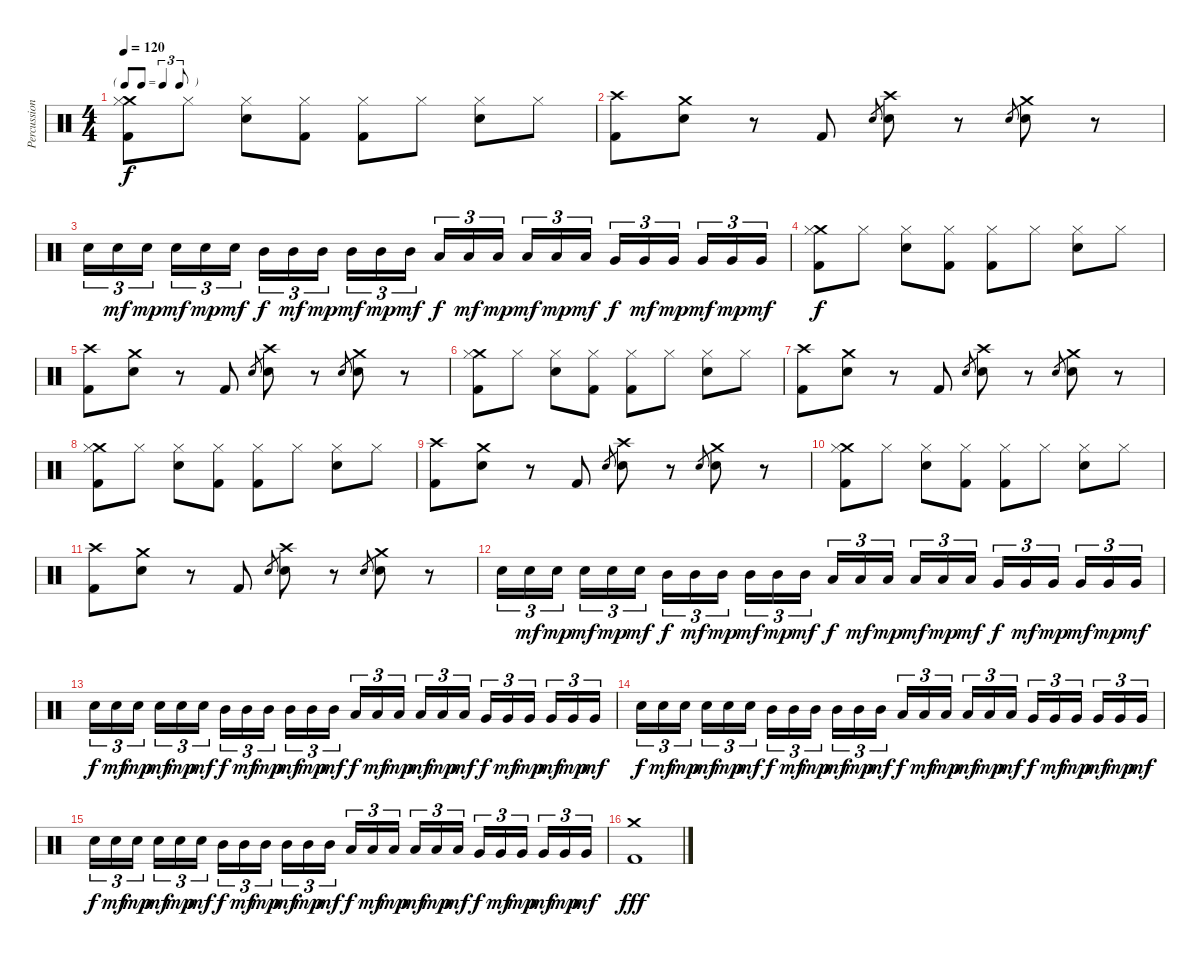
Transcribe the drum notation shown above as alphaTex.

\track ("Percussion" "Percussion") {instrument percussion}
\staff {score}
\articulation defaults
\ts (4 4)
\tf triplet8th
\tempo 120
\clef neutral
\ks c
("Crash medium (hit)" "Hi-Hat (closed)" "Kick (hit) 2").8{dy f} "Hi-Hat (closed)".8 ("Hi-Hat (closed)" "Electric Snare (hit)").8 ("Hi-Hat (closed)" "Kick (hit) 2").8 ("Hi-Hat (closed)" "Kick (hit) 2").8 "Hi-Hat (closed)".8 ("Hi-Hat (closed)" "Electric Snare (hit)").8 "Hi-Hat (closed)".8 |
("Crash high (hit)" "Kick (hit) 2").8 ("Crash medium (hit)" "Electric Snare (hit)").8 r.8 "Kick (hit) 2".8 "Electric Snare (hit)".8{gr} ("Crash high (hit)" "Electric Snare (hit)").8 r.8 "Electric Snare (hit)".8{gr} ("Crash medium (hit)" "Electric Snare (hit)").8 r.8 |
"Electric Snare (hit)".16{tu (3 2)} "Electric Snare (hit)".16{tu (3 2) dy mf} "Electric Snare (hit)".16{tu (3 2) dy mp} "Electric Snare (hit)".16{tu (3 2) dy mf} "Electric Snare (hit)".16{tu (3 2) dy mp} "Electric Snare (hit)".16{tu (3 2) dy mf} "Mid Tom (hit)".16{tu (3 2) dy f} "Mid Tom (hit)".16{tu (3 2) dy mf} "Mid Tom (hit)".16{tu (3 2) dy mp} "Mid Tom (hit)".16{tu (3 2) dy mf} "Mid Tom (hit)".16{tu (3 2) dy mp} "Mid Tom (hit)".16{tu (3 2) dy mf} "Low Tom (hit)".16{tu (3 2) dy f} "Low Tom (hit)".16{tu (3 2) dy mf} "Low Tom (hit)".16{tu (3 2) dy mp} "Low Tom (hit)".16{tu (3 2) dy mf} "Low Tom (hit)".16{tu (3 2) dy mp} "Low Tom (hit)".16{tu (3 2) dy mf} "Very Low Tom (hit)".16{tu (3 2) dy f} "Very Low Tom (hit)".16{tu (3 2) dy mf} "Very Low Tom (hit)".16{tu (3 2) dy mp} "Very Low Tom (hit)".16{tu (3 2) dy mf} "Very Low Tom (hit)".16{tu (3 2) dy mp} "Very Low Tom (hit)".16{tu (3 2) dy mf} |
("Crash medium (hit)" "Hi-Hat (closed)" "Kick (hit) 2").8{dy f} "Hi-Hat (closed)".8 ("Hi-Hat (closed)" "Electric Snare (hit)").8 ("Hi-Hat (closed)" "Kick (hit) 2").8 ("Hi-Hat (closed)" "Kick (hit) 2").8 "Hi-Hat (closed)".8 ("Hi-Hat (closed)" "Electric Snare (hit)").8 "Hi-Hat (closed)".8 |
("Crash high (hit)" "Kick (hit) 2").8 ("Crash medium (hit)" "Electric Snare (hit)").8 r.8 "Kick (hit) 2".8 "Electric Snare (hit)".8{gr} ("Crash high (hit)" "Electric Snare (hit)").8 r.8 "Electric Snare (hit)".8{gr} ("Crash medium (hit)" "Electric Snare (hit)").8 r.8 |
("Crash medium (hit)" "Hi-Hat (closed)" "Kick (hit) 2").8 "Hi-Hat (closed)".8 ("Hi-Hat (closed)" "Electric Snare (hit)").8 ("Hi-Hat (closed)" "Kick (hit) 2").8 ("Hi-Hat (closed)" "Kick (hit) 2").8 "Hi-Hat (closed)".8 ("Hi-Hat (closed)" "Electric Snare (hit)").8 "Hi-Hat (closed)".8 |
("Crash high (hit)" "Kick (hit) 2").8 ("Crash medium (hit)" "Electric Snare (hit)").8 r.8 "Kick (hit) 2".8 "Electric Snare (hit)".8{gr} ("Crash high (hit)" "Electric Snare (hit)").8 r.8 "Electric Snare (hit)".8{gr} ("Crash medium (hit)" "Electric Snare (hit)").8 r.8 |
("Crash medium (hit)" "Hi-Hat (closed)" "Kick (hit) 2").8 "Hi-Hat (closed)".8 ("Hi-Hat (closed)" "Electric Snare (hit)").8 ("Hi-Hat (closed)" "Kick (hit) 2").8 ("Hi-Hat (closed)" "Kick (hit) 2").8 "Hi-Hat (closed)".8 ("Hi-Hat (closed)" "Electric Snare (hit)").8 "Hi-Hat (closed)".8 |
("Crash high (hit)" "Kick (hit) 2").8 ("Crash medium (hit)" "Electric Snare (hit)").8 r.8 "Kick (hit) 2".8 "Electric Snare (hit)".8{gr} ("Crash high (hit)" "Electric Snare (hit)").8 r.8 "Electric Snare (hit)".8{gr} ("Crash medium (hit)" "Electric Snare (hit)").8 r.8 |
("Crash medium (hit)" "Hi-Hat (closed)" "Kick (hit) 2").8 "Hi-Hat (closed)".8 ("Hi-Hat (closed)" "Electric Snare (hit)").8 ("Hi-Hat (closed)" "Kick (hit) 2").8 ("Hi-Hat (closed)" "Kick (hit) 2").8 "Hi-Hat (closed)".8 ("Hi-Hat (closed)" "Electric Snare (hit)").8 "Hi-Hat (closed)".8 |
("Crash high (hit)" "Kick (hit) 2").8 ("Crash medium (hit)" "Electric Snare (hit)").8 r.8 "Kick (hit) 2".8 "Electric Snare (hit)".8{gr} ("Crash high (hit)" "Electric Snare (hit)").8 r.8 "Electric Snare (hit)".8{gr} ("Crash medium (hit)" "Electric Snare (hit)").8 r.8 |
"Electric Snare (hit)".16{tu (3 2)} "Electric Snare (hit)".16{tu (3 2) dy mf} "Electric Snare (hit)".16{tu (3 2) dy mp} "Electric Snare (hit)".16{tu (3 2) dy mf} "Electric Snare (hit)".16{tu (3 2) dy mp} "Electric Snare (hit)".16{tu (3 2) dy mf} "Mid Tom (hit)".16{tu (3 2) dy f} "Mid Tom (hit)".16{tu (3 2) dy mf} "Mid Tom (hit)".16{tu (3 2) dy mp} "Mid Tom (hit)".16{tu (3 2) dy mf} "Mid Tom (hit)".16{tu (3 2) dy mp} "Mid Tom (hit)".16{tu (3 2) dy mf} "Low Tom (hit)".16{tu (3 2) dy f} "Low Tom (hit)".16{tu (3 2) dy mf} "Low Tom (hit)".16{tu (3 2) dy mp} "Low Tom (hit)".16{tu (3 2) dy mf} "Low Tom (hit)".16{tu (3 2) dy mp} "Low Tom (hit)".16{tu (3 2) dy mf} "Very Low Tom (hit)".16{tu (3 2) dy f} "Very Low Tom (hit)".16{tu (3 2) dy mf} "Very Low Tom (hit)".16{tu (3 2) dy mp} "Very Low Tom (hit)".16{tu (3 2) dy mf} "Very Low Tom (hit)".16{tu (3 2) dy mp} "Very Low Tom (hit)".16{tu (3 2) dy mf} |
"Electric Snare (hit)".16{tu (3 2) dy f} "Electric Snare (hit)".16{tu (3 2) dy mf} "Electric Snare (hit)".16{tu (3 2) dy mp} "Electric Snare (hit)".16{tu (3 2) dy mf} "Electric Snare (hit)".16{tu (3 2) dy mp} "Electric Snare (hit)".16{tu (3 2) dy mf} "Mid Tom (hit)".16{tu (3 2) dy f} "Mid Tom (hit)".16{tu (3 2) dy mf} "Mid Tom (hit)".16{tu (3 2) dy mp} "Mid Tom (hit)".16{tu (3 2) dy mf} "Mid Tom (hit)".16{tu (3 2) dy mp} "Mid Tom (hit)".16{tu (3 2) dy mf} "Low Tom (hit)".16{tu (3 2) dy f} "Low Tom (hit)".16{tu (3 2) dy mf} "Low Tom (hit)".16{tu (3 2) dy mp} "Low Tom (hit)".16{tu (3 2) dy mf} "Low Tom (hit)".16{tu (3 2) dy mp} "Low Tom (hit)".16{tu (3 2) dy mf} "Very Low Tom (hit)".16{tu (3 2) dy f} "Very Low Tom (hit)".16{tu (3 2) dy mf} "Very Low Tom (hit)".16{tu (3 2) dy mp} "Very Low Tom (hit)".16{tu (3 2) dy mf} "Very Low Tom (hit)".16{tu (3 2) dy mp} "Very Low Tom (hit)".16{tu (3 2) dy mf} |
"Electric Snare (hit)".16{tu (3 2) dy f} "Electric Snare (hit)".16{tu (3 2) dy mf} "Electric Snare (hit)".16{tu (3 2) dy mp} "Electric Snare (hit)".16{tu (3 2) dy mf} "Electric Snare (hit)".16{tu (3 2) dy mp} "Electric Snare (hit)".16{tu (3 2) dy mf} "Mid Tom (hit)".16{tu (3 2) dy f} "Mid Tom (hit)".16{tu (3 2) dy mf} "Mid Tom (hit)".16{tu (3 2) dy mp} "Mid Tom (hit)".16{tu (3 2) dy mf} "Mid Tom (hit)".16{tu (3 2) dy mp} "Mid Tom (hit)".16{tu (3 2) dy mf} "Low Tom (hit)".16{tu (3 2) dy f} "Low Tom (hit)".16{tu (3 2) dy mf} "Low Tom (hit)".16{tu (3 2) dy mp} "Low Tom (hit)".16{tu (3 2) dy mf} "Low Tom (hit)".16{tu (3 2) dy mp} "Low Tom (hit)".16{tu (3 2) dy mf} "Very Low Tom (hit)".16{tu (3 2) dy f} "Very Low Tom (hit)".16{tu (3 2) dy mf} "Very Low Tom (hit)".16{tu (3 2) dy mp} "Very Low Tom (hit)".16{tu (3 2) dy mf} "Very Low Tom (hit)".16{tu (3 2) dy mp} "Very Low Tom (hit)".16{tu (3 2) dy mf} |
"Electric Snare (hit)".16{tu (3 2) dy f} "Electric Snare (hit)".16{tu (3 2) dy mf} "Electric Snare (hit)".16{tu (3 2) dy mp} "Electric Snare (hit)".16{tu (3 2) dy mf} "Electric Snare (hit)".16{tu (3 2) dy mp} "Electric Snare (hit)".16{tu (3 2) dy mf} "Mid Tom (hit)".16{tu (3 2) dy f} "Mid Tom (hit)".16{tu (3 2) dy mf} "Mid Tom (hit)".16{tu (3 2) dy mp} "Mid Tom (hit)".16{tu (3 2) dy mf} "Mid Tom (hit)".16{tu (3 2) dy mp} "Mid Tom (hit)".16{tu (3 2) dy mf} "Low Tom (hit)".16{tu (3 2) dy f} "Low Tom (hit)".16{tu (3 2) dy mf} "Low Tom (hit)".16{tu (3 2) dy mp} "Low Tom (hit)".16{tu (3 2) dy mf} "Low Tom (hit)".16{tu (3 2) dy mp} "Low Tom (hit)".16{tu (3 2) dy mf} "Very Low Tom (hit)".16{tu (3 2) dy f} "Very Low Tom (hit)".16{tu (3 2) dy mf} "Very Low Tom (hit)".16{tu (3 2) dy mp} "Very Low Tom (hit)".16{tu (3 2) dy mf} "Very Low Tom (hit)".16{tu (3 2) dy mp} "Very Low Tom (hit)".16{tu (3 2) dy mf} |
("Crash medium (hit)" "Kick (hit) 2").1{dy fff}
